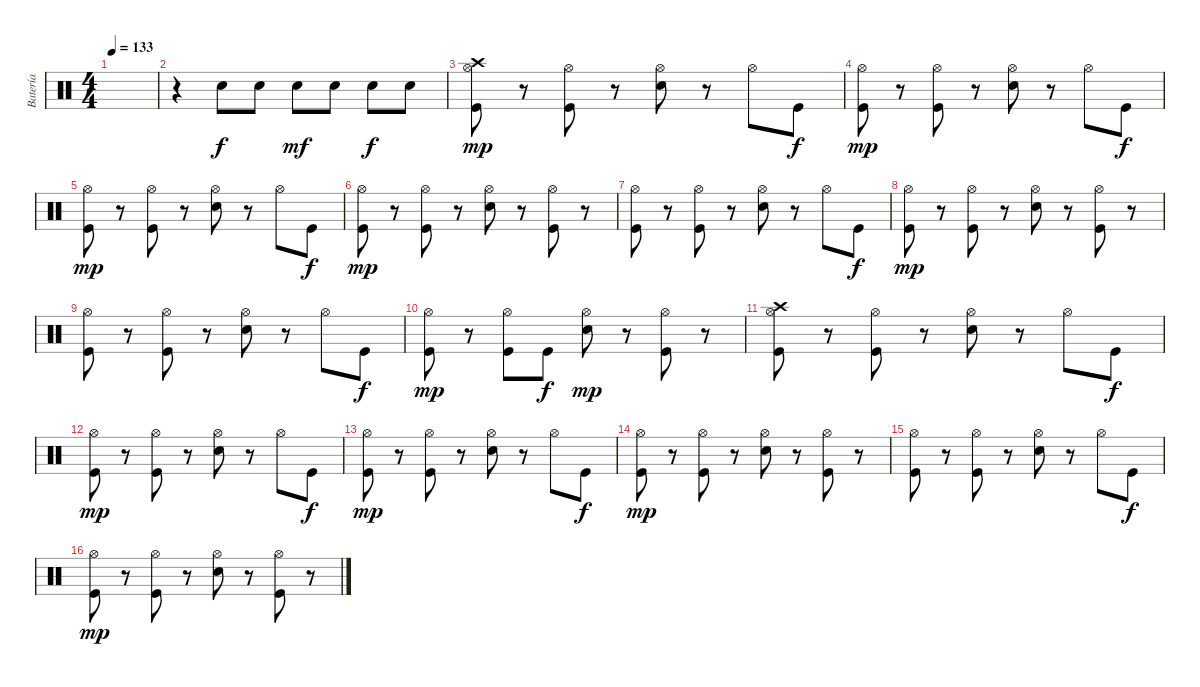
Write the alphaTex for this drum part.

\track ("Batería" "Batería") {instrument percussion}
\staff {score}
\articulation defaults
\ts (4 4)
\tempo 133
\clef neutral
\ks c
|
r.4 "Snare (hit) 2".8 "Snare (hit) 2".8 "Snare (hit) 2".8{dy mf} "Snare (hit) 2".8 "Snare (hit) 2".8{dy f} "Snare (hit) 2".8 |
("Hi-Hat (open)" "Crash high (hit)" "Kick (hit)").8{dy mp} r.8 ("Hi-Hat (open)" "Kick (hit)").8 r.8 ("Hi-Hat (open)" "Snare (hit) 2").8 r.8 "Hi-Hat (open)".8 "Kick (hit)".8{dy f} |
("Hi-Hat (open)" "Kick (hit)").8{dy mp} r.8 ("Hi-Hat (open)" "Kick (hit)").8 r.8 ("Hi-Hat (open)" "Snare (hit) 2").8 r.8 "Hi-Hat (open)".8 "Kick (hit)".8{dy f} |
("Hi-Hat (open)" "Kick (hit)").8{dy mp} r.8 ("Hi-Hat (open)" "Kick (hit)").8 r.8 ("Hi-Hat (open)" "Snare (hit) 2").8 r.8 "Hi-Hat (open)".8 "Kick (hit)".8{dy f} |
("Hi-Hat (open)" "Kick (hit)").8{dy mp} r.8 ("Hi-Hat (open)" "Kick (hit)").8 r.8 ("Hi-Hat (open)" "Snare (hit) 2").8 r.8 ("Hi-Hat (open)" "Kick (hit)").8 r.8 |
("Hi-Hat (open)" "Kick (hit)").8 r.8 ("Hi-Hat (open)" "Kick (hit)").8 r.8 ("Hi-Hat (open)" "Snare (hit) 2").8 r.8 "Hi-Hat (open)".8 "Kick (hit)".8{dy f} |
("Hi-Hat (open)" "Kick (hit)").8{dy mp} r.8 ("Hi-Hat (open)" "Kick (hit)").8 r.8 ("Hi-Hat (open)" "Snare (hit) 2").8 r.8 ("Hi-Hat (open)" "Kick (hit)").8 r.8 |
("Hi-Hat (open)" "Kick (hit)").8 r.8 ("Hi-Hat (open)" "Kick (hit)").8 r.8 ("Hi-Hat (open)" "Snare (hit) 2").8 r.8 "Hi-Hat (open)".8 "Kick (hit)".8{dy f} |
("Hi-Hat (open)" "Kick (hit)").8{dy mp} r.8 ("Hi-Hat (open)" "Kick (hit)").8 "Kick (hit)".8{dy f} ("Hi-Hat (open)" "Snare (hit) 2").8{dy mp} r.8 ("Hi-Hat (open)" "Kick (hit)").8 r.8 |
("Hi-Hat (open)" "Crash high (hit)" "Kick (hit)").8 r.8 ("Hi-Hat (open)" "Kick (hit)").8 r.8 ("Hi-Hat (open)" "Snare (hit) 2").8 r.8 "Hi-Hat (open)".8 "Kick (hit)".8{dy f} |
("Hi-Hat (open)" "Kick (hit)").8{dy mp} r.8 ("Hi-Hat (open)" "Kick (hit)").8 r.8 ("Hi-Hat (open)" "Snare (hit) 2").8 r.8 "Hi-Hat (open)".8 "Kick (hit)".8{dy f} |
("Hi-Hat (open)" "Kick (hit)").8{dy mp} r.8 ("Hi-Hat (open)" "Kick (hit)").8 r.8 ("Hi-Hat (open)" "Snare (hit) 2").8 r.8 "Hi-Hat (open)".8 "Kick (hit)".8{dy f} |
("Hi-Hat (open)" "Kick (hit)").8{dy mp} r.8 ("Hi-Hat (open)" "Kick (hit)").8 r.8 ("Hi-Hat (open)" "Snare (hit) 2").8 r.8 ("Hi-Hat (open)" "Kick (hit)").8 r.8 |
("Hi-Hat (open)" "Kick (hit)").8 r.8 ("Hi-Hat (open)" "Kick (hit)").8 r.8 ("Hi-Hat (open)" "Snare (hit) 2").8 r.8 "Hi-Hat (open)".8 "Kick (hit)".8{dy f} |
("Hi-Hat (open)" "Kick (hit)").8{dy mp} r.8 ("Hi-Hat (open)" "Kick (hit)").8 r.8 ("Hi-Hat (open)" "Snare (hit) 2").8 r.8 ("Hi-Hat (open)" "Kick (hit)").8 r.8
